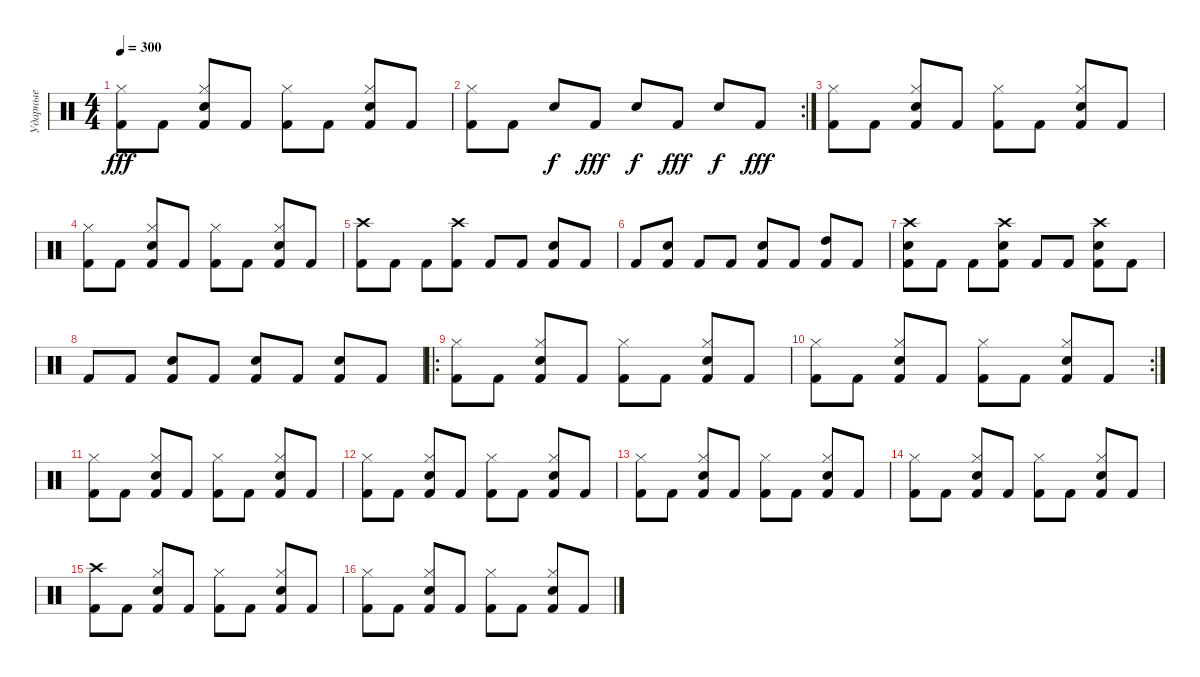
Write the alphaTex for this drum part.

\track ("Ударные" "Ударные") {instrument percussion}
\staff {score}
\articulation defaults
\ts (4 4)
\tempo 300
\clef neutral
\ks c
("Kick (hit) 2" "Hi-Hat (closed)").8{dy fff} "Kick (hit) 2".8 ("Kick (hit) 2" "Snare (hit) 2" "Hi-Hat (closed)").8 "Kick (hit) 2".8 ("Kick (hit) 2" "Hi-Hat (closed)").8 "Kick (hit) 2".8 ("Kick (hit) 2" "Snare (hit) 2" "Hi-Hat (closed)").8 "Kick (hit) 2".8 |
\rc 2
("Kick (hit) 2" "Hi-Hat (closed)").8 "Kick (hit) 2".8 "Snare (hit) 2".8{dy f} "Kick (hit) 2".8{dy fff} "Snare (hit) 2".8{dy f} "Kick (hit) 2".8{dy fff} "Snare (hit) 2".8{dy f} "Kick (hit) 2".8{dy fff} |
("Kick (hit) 2" "Hi-Hat (closed)").8 "Kick (hit) 2".8 ("Kick (hit) 2" "Snare (hit) 2" "Hi-Hat (closed)").8 "Kick (hit) 2".8 ("Kick (hit) 2" "Hi-Hat (closed)").8 "Kick (hit) 2".8 ("Kick (hit) 2" "Snare (hit) 2" "Hi-Hat (closed)").8 "Kick (hit) 2".8 |
("Kick (hit) 2" "Hi-Hat (closed)").8 "Kick (hit) 2".8 ("Kick (hit) 2" "Snare (hit) 2" "Hi-Hat (closed)").8 "Kick (hit) 2".8 ("Kick (hit) 2" "Hi-Hat (closed)").8 "Kick (hit) 2".8 ("Kick (hit) 2" "Snare (hit) 2" "Hi-Hat (closed)").8 "Kick (hit) 2".8 |
("Kick (hit) 2" "Crash high (hit)").8 "Kick (hit) 2".8 "Kick (hit) 2".8 ("Kick (hit) 2" "Crash high (hit)").8 "Kick (hit) 2".8 "Kick (hit) 2".8 ("Kick (hit) 2" "Snare (hit) 2").8 "Kick (hit) 2".8 |
"Kick (hit) 2".8 ("Kick (hit) 2" "Electric Snare (hit)").8 "Kick (hit) 2".8 "Kick (hit) 2".8 ("Kick (hit) 2" "Snare (hit) 2").8 "Kick (hit) 2".8 ("Kick (hit) 2" "High Tom (hit)").8 "Kick (hit) 2".8 |
("Kick (hit) 2" "Snare (hit) 2" "Crash high (hit)").8 "Kick (hit) 2".8 "Kick (hit) 2".8 ("Kick (hit) 2" "Snare (hit) 2" "Crash high (hit)").8 "Kick (hit) 2".8 "Kick (hit) 2".8 ("Kick (hit) 2" "Snare (hit) 2" "Crash high (hit)").8 "Kick (hit) 2".8 |
"Kick (hit) 2".8 "Kick (hit) 2".8 ("Kick (hit) 2" "Electric Snare (hit)").8 "Kick (hit) 2".8 ("Kick (hit) 2" "Electric Snare (hit)").8 "Kick (hit) 2".8 ("Kick (hit) 2" "Electric Snare (hit)").8 "Kick (hit) 2".8 |
\ro
("Kick (hit) 2" "Hi-Hat (closed)").8 "Kick (hit) 2".8 ("Kick (hit) 2" "Snare (hit) 2" "Hi-Hat (closed)").8 "Kick (hit) 2".8 ("Kick (hit) 2" "Hi-Hat (closed)").8 "Kick (hit) 2".8 ("Kick (hit) 2" "Snare (hit) 2" "Hi-Hat (closed)").8 "Kick (hit) 2".8 |
\rc 2
("Kick (hit) 2" "Hi-Hat (closed)").8 "Kick (hit) 2".8 ("Kick (hit) 2" "Snare (hit) 2" "Hi-Hat (closed)").8 "Kick (hit) 2".8 ("Kick (hit) 2" "Hi-Hat (closed)").8 "Kick (hit) 2".8 ("Kick (hit) 2" "Snare (hit) 2" "Hi-Hat (closed)").8 "Kick (hit) 2".8 |
("Kick (hit) 2" "Hi-Hat (closed)").8 "Kick (hit) 2".8 ("Kick (hit) 2" "Snare (hit) 2" "Hi-Hat (closed)").8 "Kick (hit) 2".8 ("Kick (hit) 2" "Hi-Hat (closed)").8 "Kick (hit) 2".8 ("Kick (hit) 2" "Snare (hit) 2" "Hi-Hat (closed)").8 "Kick (hit) 2".8 |
("Kick (hit) 2" "Hi-Hat (closed)").8 "Kick (hit) 2".8 ("Kick (hit) 2" "Snare (hit) 2" "Hi-Hat (closed)").8 "Kick (hit) 2".8 ("Kick (hit) 2" "Hi-Hat (closed)").8 "Kick (hit) 2".8 ("Kick (hit) 2" "Snare (hit) 2" "Hi-Hat (closed)").8 "Kick (hit) 2".8 |
("Kick (hit) 2" "Hi-Hat (closed)").8 "Kick (hit) 2".8 ("Kick (hit) 2" "Snare (hit) 2" "Hi-Hat (closed)").8 "Kick (hit) 2".8 ("Kick (hit) 2" "Hi-Hat (closed)").8 "Kick (hit) 2".8 ("Kick (hit) 2" "Snare (hit) 2" "Hi-Hat (closed)").8 "Kick (hit) 2".8 |
("Kick (hit) 2" "Hi-Hat (closed)").8 "Kick (hit) 2".8 ("Kick (hit) 2" "Snare (hit) 2" "Hi-Hat (closed)").8 "Kick (hit) 2".8 ("Kick (hit) 2" "Hi-Hat (closed)").8 "Kick (hit) 2".8 ("Kick (hit) 2" "Snare (hit) 2" "Hi-Hat (closed)").8 "Kick (hit) 2".8 |
("Kick (hit) 2" "Crash high (hit)").8 "Kick (hit) 2".8 ("Kick (hit) 2" "Snare (hit) 2" "Hi-Hat (closed)").8 "Kick (hit) 2".8 ("Kick (hit) 2" "Hi-Hat (closed)").8 "Kick (hit) 2".8 ("Kick (hit) 2" "Snare (hit) 2" "Hi-Hat (closed)").8 "Kick (hit) 2".8 |
("Kick (hit) 2" "Hi-Hat (closed)").8 "Kick (hit) 2".8 ("Kick (hit) 2" "Snare (hit) 2" "Hi-Hat (closed)").8 "Kick (hit) 2".8 ("Kick (hit) 2" "Hi-Hat (closed)").8 "Kick (hit) 2".8 ("Kick (hit) 2" "Snare (hit) 2" "Hi-Hat (closed)").8 "Kick (hit) 2".8
